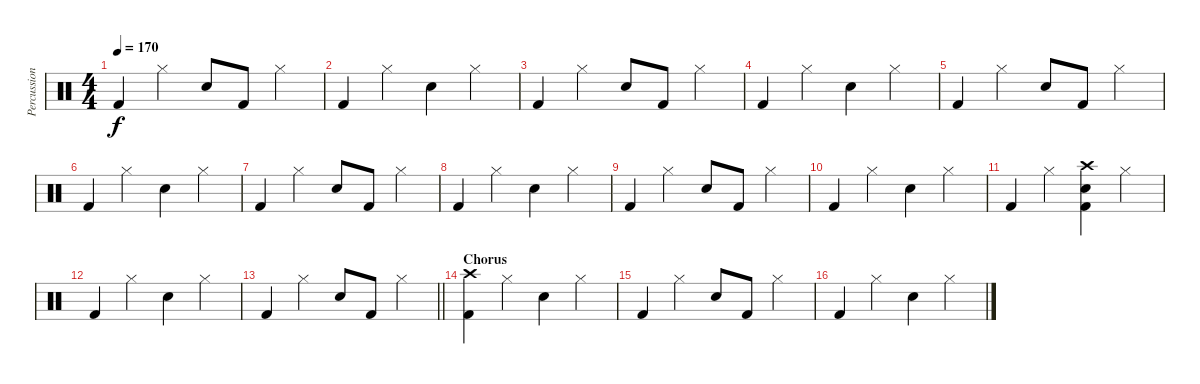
\track ("Percussion" "Percussion") {instrument percussion}
\staff {score}
\articulation defaults
\ts (4 4)
\tempo 170
\clef neutral
\ks c "Kick (hit) 2".4{dy f} "Hi-Hat (closed)".4 "Snare (hit) 2".8 "Kick (hit) 2".8 "Hi-Hat (closed)".4
|
"Kick (hit) 2".4 "Hi-Hat (closed)".4 "Snare (hit) 2".4 "Hi-Hat (closed)".4 |
"Kick (hit) 2".4 "Hi-Hat (closed)".4 "Snare (hit) 2".8 "Kick (hit) 2".8 "Hi-Hat (closed)".4 |
"Kick (hit) 2".4 "Hi-Hat (closed)".4 "Snare (hit) 2".4 "Hi-Hat (closed)".4 |
"Kick (hit) 2".4 "Hi-Hat (closed)".4 "Snare (hit) 2".8 "Kick (hit) 2".8 "Hi-Hat (closed)".4 |
"Kick (hit) 2".4 "Hi-Hat (closed)".4 "Snare (hit) 2".4 "Hi-Hat (closed)".4 |
"Kick (hit) 2".4 "Hi-Hat (closed)".4 "Snare (hit) 2".8 "Kick (hit) 2".8 "Hi-Hat (closed)".4 |
"Kick (hit) 2".4 "Hi-Hat (closed)".4 "Snare (hit) 2".4 "Hi-Hat (closed)".4 |
"Kick (hit) 2".4 "Hi-Hat (closed)".4 "Snare (hit) 2".8 "Kick (hit) 2".8 "Hi-Hat (closed)".4 |
"Kick (hit) 2".4 "Hi-Hat (closed)".4 "Snare (hit) 2".4 "Hi-Hat (closed)".4 |
"Kick (hit) 2".4 "Hi-Hat (closed)".4 ("Snare (hit) 2" "Crash high (hit)" "Kick (hit) 2").4 "Hi-Hat (closed)".4 |
"Kick (hit) 2".4 "Hi-Hat (closed)".4 "Snare (hit) 2".4 "Hi-Hat (closed)".4 |
\barLineRight lightlight "Kick (hit) 2".4 "Hi-Hat (closed)".4 "Snare (hit) 2".8 "Kick (hit) 2".8 "Hi-Hat (closed)".4
|
\section ("" "Chorus")
("Crash high (hit)" "Kick (hit) 2").4 "Hi-Hat (closed)".4 "Snare (hit) 2".4 "Hi-Hat (closed)".4 |
"Kick (hit) 2".4 "Hi-Hat (closed)".4 "Snare (hit) 2".8 "Kick (hit) 2".8 "Hi-Hat (closed)".4 |
"Kick (hit) 2".4 "Hi-Hat (closed)".4 "Snare (hit) 2".4 "Hi-Hat (closed)".4
